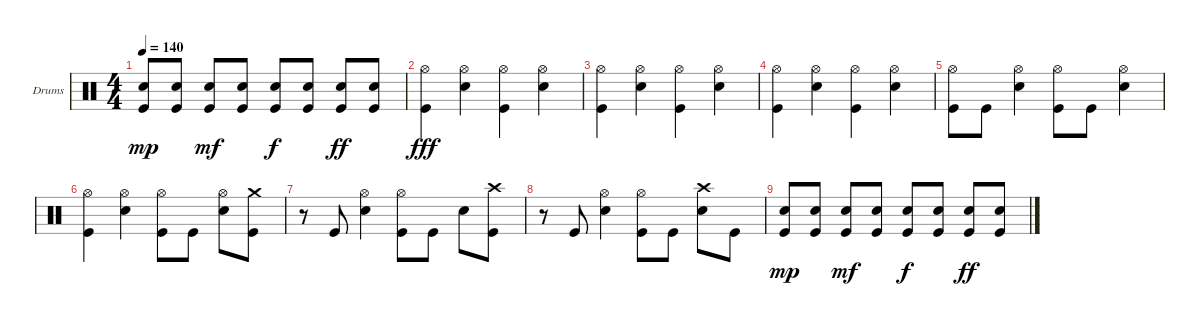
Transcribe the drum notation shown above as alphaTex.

\bracketExtendMode groupsimilarinstruments
\firstSystemTrackNameOrientation horizontal
\otherSystemsTrackNameOrientation horizontal
\track ("Drumkit" "Drums") {instrument percussion}
\staff {score}
\articulation defaults
\ts (4 4)
\tempo 140
\clef neutral
\ks c
("Kick (hit)" "Snare (hit) 2").8{dy mp} ("Kick (hit)" "Snare (hit) 2").8 ("Kick (hit)" "Snare (hit) 2").8{dy mf} ("Kick (hit)" "Snare (hit) 2").8 ("Kick (hit)" "Snare (hit) 2").8{dy f} ("Kick (hit)" "Snare (hit) 2").8 ("Kick (hit)" "Snare (hit) 2").8{dy ff} ("Kick (hit)" "Snare (hit) 2").8 |
("Kick (hit)" "Hi-Hat (open)").4{dy fff} ("Snare (hit) 2" "Hi-Hat (open)").4 ("Kick (hit)" "Hi-Hat (open)").4 ("Snare (hit) 2" "Hi-Hat (open)").4 |
("Kick (hit)" "Hi-Hat (open)").4 ("Snare (hit) 2" "Hi-Hat (open)").4 ("Kick (hit)" "Hi-Hat (open)").4 ("Snare (hit) 2" "Hi-Hat (open)").4 |
("Kick (hit)" "Hi-Hat (open)").4 ("Snare (hit) 2" "Hi-Hat (open)").4 ("Kick (hit)" "Hi-Hat (open)").4 ("Snare (hit) 2" "Hi-Hat (open)").4 |
("Kick (hit)" "Hi-Hat (open)").8 "Kick (hit)".8 ("Snare (hit) 2" "Hi-Hat (open)").4 ("Kick (hit)" "Hi-Hat (open)").8 "Kick (hit)".8 ("Snare (hit) 2" "Hi-Hat (open)").4 |
("Kick (hit)" "Hi-Hat (open)").4 ("Snare (hit) 2" "Hi-Hat (open)").4 ("Kick (hit)" "Hi-Hat (open)").8 "Kick (hit)".8 ("Snare (hit) 2" "Hi-Hat (open)").8 ("Kick (hit)" "Crash medium (hit)").8 |
r.8 "Kick (hit)".8 ("Snare (hit) 2" "Hi-Hat (open)").4 ("Kick (hit)" "Hi-Hat (open)").8 "Kick (hit)".8 "Snare (hit) 2".8 ("Kick (hit)" "Crash high (hit)").8 |
r.8 "Kick (hit)".8 ("Snare (hit) 2" "Hi-Hat (open)").4 ("Kick (hit)" "Hi-Hat (open)").8 "Kick (hit)".8 ("Snare (hit) 2" "Crash high (hit)").8 "Kick (hit)".8 |
("Kick (hit)" "Snare (hit) 2").8{dy mp} ("Kick (hit)" "Snare (hit) 2").8 ("Kick (hit)" "Snare (hit) 2").8{dy mf} ("Kick (hit)" "Snare (hit) 2").8 ("Kick (hit)" "Snare (hit) 2").8{dy f} ("Kick (hit)" "Snare (hit) 2").8 ("Kick (hit)" "Snare (hit) 2").8{dy ff} ("Kick (hit)" "Snare (hit) 2").8
